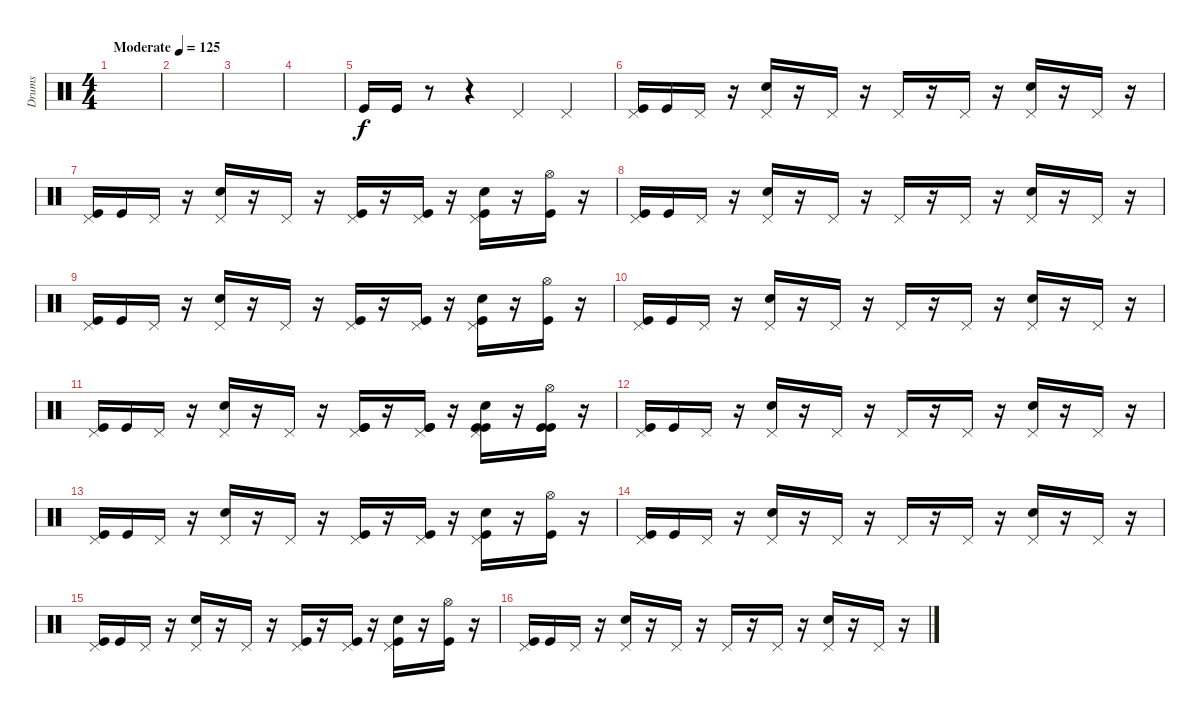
\track ("Drums" "Drums") {instrument percussion}
\staff {score}
\articulation defaults
\ts (4 4)
\tempo (125 "Moderate")
\clef neutral
\ks c
|
|
|
|
"Kick (hit)".16 "Kick (hit)".16 r.8 r.4 "Pedal Hi-Hat (hit)".4 "Pedal Hi-Hat (hit)".4 |
("Pedal Hi-Hat (hit)" "Kick (hit)").16 "Kick (hit)".16 "Pedal Hi-Hat (hit)".16 r.16 ("Pedal Hi-Hat (hit)" "Snare (hit) 2").16 r.16 "Pedal Hi-Hat (hit)".16 r.16 "Pedal Hi-Hat (hit)".16 r.16 "Pedal Hi-Hat (hit)".16 r.16 ("Pedal Hi-Hat (hit)" "Snare (hit) 2").16 r.16 "Pedal Hi-Hat (hit)".16 r.16 |
("Pedal Hi-Hat (hit)" "Kick (hit)").16 "Kick (hit)".16 "Pedal Hi-Hat (hit)".16 r.16 ("Pedal Hi-Hat (hit)" "Snare (hit) 2").16 r.16 "Pedal Hi-Hat (hit)".16 r.16 ("Pedal Hi-Hat (hit)" "Kick (hit)").16 r.16 ("Pedal Hi-Hat (hit)" "Kick (hit)").16 r.16 ("Pedal Hi-Hat (hit)" "Snare (hit) 2" "Kick (hit)").16 r.16 ("Hi-Hat (open)" "Kick (hit)").16 r.16 |
("Pedal Hi-Hat (hit)" "Kick (hit)").16 "Kick (hit)".16 "Pedal Hi-Hat (hit)".16 r.16 ("Pedal Hi-Hat (hit)" "Snare (hit) 2").16 r.16 "Pedal Hi-Hat (hit)".16 r.16 "Pedal Hi-Hat (hit)".16 r.16 "Pedal Hi-Hat (hit)".16 r.16 ("Pedal Hi-Hat (hit)" "Snare (hit) 2").16 r.16 "Pedal Hi-Hat (hit)".16 r.16 |
("Pedal Hi-Hat (hit)" "Kick (hit)").16 "Kick (hit)".16 "Pedal Hi-Hat (hit)".16 r.16 ("Pedal Hi-Hat (hit)" "Snare (hit) 2").16 r.16 "Pedal Hi-Hat (hit)".16 r.16 ("Pedal Hi-Hat (hit)" "Kick (hit)").16 r.16 ("Pedal Hi-Hat (hit)" "Kick (hit)").16 r.16 ("Pedal Hi-Hat (hit)" "Snare (hit) 2" "Kick (hit)").16 r.16 ("Hi-Hat (open)" "Kick (hit)").16 r.16 |
("Pedal Hi-Hat (hit)" "Kick (hit)").16 "Kick (hit)".16 "Pedal Hi-Hat (hit)".16 r.16 ("Pedal Hi-Hat (hit)" "Snare (hit) 2").16 r.16 "Pedal Hi-Hat (hit)".16 r.16 "Pedal Hi-Hat (hit)".16 r.16 "Pedal Hi-Hat (hit)".16 r.16 ("Pedal Hi-Hat (hit)" "Snare (hit) 2").16 r.16 "Pedal Hi-Hat (hit)".16 r.16 |
("Pedal Hi-Hat (hit)" "Kick (hit)").16 "Kick (hit)".16 "Pedal Hi-Hat (hit)".16 r.16 ("Pedal Hi-Hat (hit)" "Snare (hit) 2").16 r.16 "Pedal Hi-Hat (hit)".16 r.16 ("Pedal Hi-Hat (hit)" "Kick (hit)" "Kick (hit)").16 r.16 ("Pedal Hi-Hat (hit)" "Kick (hit)" "Kick (hit)").16 r.16 ("Pedal Hi-Hat (hit)" "Snare (hit) 2" "Kick (hit)" "Kick (hit)").16 r.16 ("Hi-Hat (open)" "Kick (hit)" "Kick (hit)").16 r.16 |
("Pedal Hi-Hat (hit)" "Kick (hit)").16 "Kick (hit)".16 "Pedal Hi-Hat (hit)".16 r.16 ("Pedal Hi-Hat (hit)" "Snare (hit) 2").16 r.16 "Pedal Hi-Hat (hit)".16 r.16 "Pedal Hi-Hat (hit)".16 r.16 "Pedal Hi-Hat (hit)".16 r.16 ("Pedal Hi-Hat (hit)" "Snare (hit) 2").16 r.16 "Pedal Hi-Hat (hit)".16 r.16 |
("Pedal Hi-Hat (hit)" "Kick (hit)").16 "Kick (hit)".16 "Pedal Hi-Hat (hit)".16 r.16 ("Pedal Hi-Hat (hit)" "Snare (hit) 2").16 r.16 "Pedal Hi-Hat (hit)".16 r.16 ("Pedal Hi-Hat (hit)" "Kick (hit)").16 r.16 ("Pedal Hi-Hat (hit)" "Kick (hit)").16 r.16 ("Pedal Hi-Hat (hit)" "Snare (hit) 2" "Kick (hit)").16 r.16 ("Hi-Hat (open)" "Kick (hit)").16 r.16 |
("Pedal Hi-Hat (hit)" "Kick (hit)").16 "Kick (hit)".16 "Pedal Hi-Hat (hit)".16 r.16 ("Pedal Hi-Hat (hit)" "Snare (hit) 2").16 r.16 "Pedal Hi-Hat (hit)".16 r.16 "Pedal Hi-Hat (hit)".16 r.16 "Pedal Hi-Hat (hit)".16 r.16 ("Pedal Hi-Hat (hit)" "Snare (hit) 2").16 r.16 "Pedal Hi-Hat (hit)".16 r.16 |
("Pedal Hi-Hat (hit)" "Kick (hit)").16 "Kick (hit)".16 "Pedal Hi-Hat (hit)".16 r.16 ("Pedal Hi-Hat (hit)" "Snare (hit) 2").16 r.16 "Pedal Hi-Hat (hit)".16 r.16 ("Pedal Hi-Hat (hit)" "Kick (hit)").16 r.16 ("Pedal Hi-Hat (hit)" "Kick (hit)").16 r.16 ("Pedal Hi-Hat (hit)" "Snare (hit) 2" "Kick (hit)").16 r.16 ("Hi-Hat (open)" "Kick (hit)").16 r.16 |
("Pedal Hi-Hat (hit)" "Kick (hit)").16 "Kick (hit)".16 "Pedal Hi-Hat (hit)".16 r.16 ("Pedal Hi-Hat (hit)" "Snare (hit) 2").16 r.16 "Pedal Hi-Hat (hit)".16 r.16 "Pedal Hi-Hat (hit)".16 r.16 "Pedal Hi-Hat (hit)".16 r.16 ("Pedal Hi-Hat (hit)" "Snare (hit) 2").16 r.16 "Pedal Hi-Hat (hit)".16 r.16
